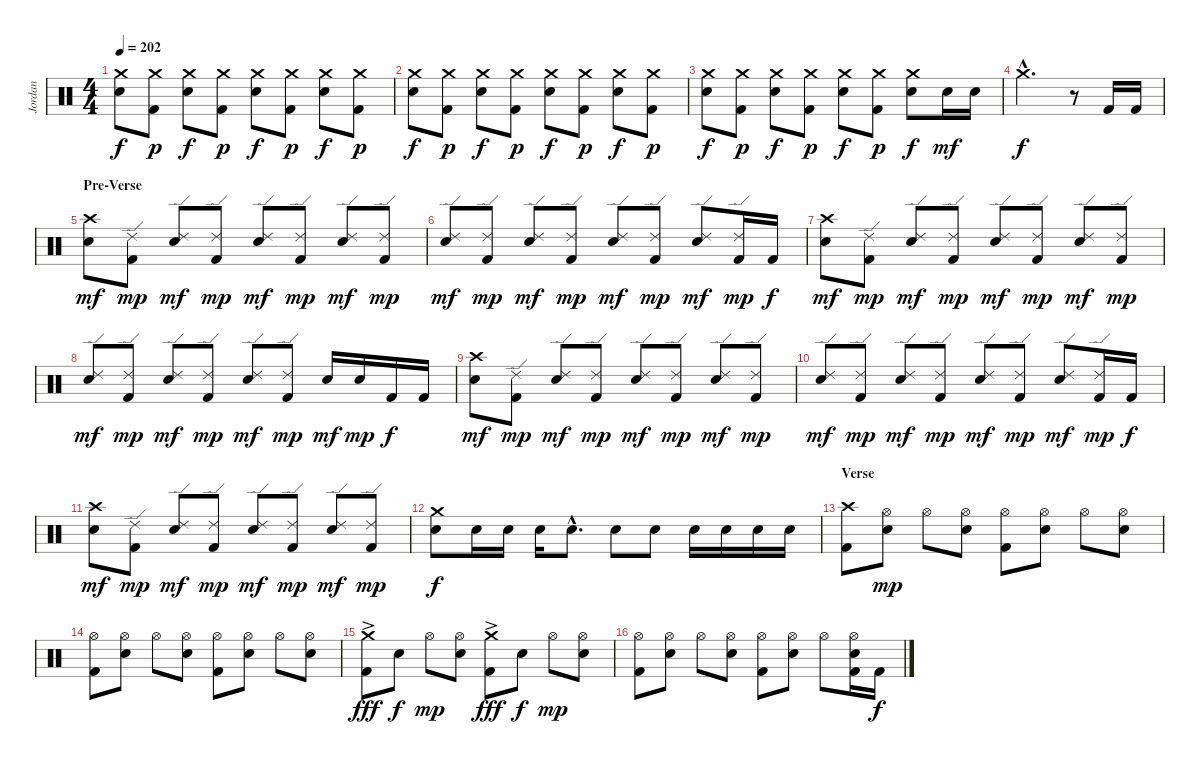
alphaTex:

\track ("Jordan" "Jordan") {instrument percussion}
\staff {score}
\articulation defaults
\ts (4 4)
\tempo 202
\clef neutral
\ks c
("Crash medium (hit)" "Electric Snare (hit)").8{dy f} ("Crash medium (hit)" "Kick (hit) 2").8{dy p} ("Crash medium (hit)" "Electric Snare (hit)").8{dy f} ("Crash medium (hit)" "Kick (hit) 2").8{dy p} ("Crash medium (hit)" "Electric Snare (hit)").8{dy f} ("Crash medium (hit)" "Kick (hit) 2").8{dy p} ("Crash medium (hit)" "Electric Snare (hit)").8{dy f} ("Crash medium (hit)" "Kick (hit) 2").8{dy p} |
("Crash medium (hit)" "Electric Snare (hit)").8{dy f} ("Crash medium (hit)" "Kick (hit) 2").8{dy p} ("Crash medium (hit)" "Electric Snare (hit)").8{dy f} ("Crash medium (hit)" "Kick (hit) 2").8{dy p} ("Crash medium (hit)" "Electric Snare (hit)").8{dy f} ("Crash medium (hit)" "Kick (hit) 2").8{dy p} ("Crash medium (hit)" "Electric Snare (hit)").8{dy f} ("Crash medium (hit)" "Kick (hit) 2").8{dy p} |
("Crash medium (hit)" "Electric Snare (hit)").8{dy f} ("Crash medium (hit)" "Kick (hit) 2").8{dy p} ("Crash medium (hit)" "Electric Snare (hit)").8{dy f} ("Crash medium (hit)" "Kick (hit) 2").8{dy p} ("Crash medium (hit)" "Electric Snare (hit)").8{dy f} ("Crash medium (hit)" "Kick (hit) 2").8{dy p} ("Crash medium (hit)" "Electric Snare (hit)").8{dy f} "Electric Snare (hit)".16{dy mf} "Electric Snare (hit)".16 |
"Crash medium (hit)"{hac}.2{d dy f} r.8 "Kick (hit) 2".16 "Kick (hit) 2".16 |
\section ("" "Pre-Verse")
("Crash high (hit)" "Electric Snare (hit)").8{dy mf} ("Ride (edge) 2" "Kick (hit) 2").8{dy mp} ("Ride (edge) 2" "Electric Snare (hit)").8{dy mf} ("Ride (edge) 2" "Kick (hit) 2").8{dy mp} ("Ride (edge) 2" "Electric Snare (hit)").8{dy mf} ("Ride (edge) 2" "Kick (hit) 2").8{dy mp} ("Ride (edge) 2" "Electric Snare (hit)").8{dy mf} ("Ride (edge) 2" "Kick (hit) 2").8{dy mp} |
("Ride (edge) 2" "Electric Snare (hit)").8{dy mf} ("Ride (edge) 2" "Kick (hit) 2").8{dy mp} ("Ride (edge) 2" "Electric Snare (hit)").8{dy mf} ("Ride (edge) 2" "Kick (hit) 2").8{dy mp} ("Ride (edge) 2" "Electric Snare (hit)").8{dy mf} ("Ride (edge) 2" "Kick (hit) 2").8{dy mp} ("Ride (edge) 2" "Electric Snare (hit)").8{dy mf} ("Ride (edge) 2" "Kick (hit) 2").16{dy mp} "Kick (hit) 2".16{dy f} |
("Crash high (hit)" "Electric Snare (hit)").8{dy mf} ("Ride (edge) 2" "Kick (hit) 2").8{dy mp} ("Ride (edge) 2" "Electric Snare (hit)").8{dy mf} ("Ride (edge) 2" "Kick (hit) 2").8{dy mp} ("Ride (edge) 2" "Electric Snare (hit)").8{dy mf} ("Ride (edge) 2" "Kick (hit) 2").8{dy mp} ("Ride (edge) 2" "Electric Snare (hit)").8{dy mf} ("Ride (edge) 2" "Kick (hit) 2").8{dy mp} |
("Ride (edge) 2" "Electric Snare (hit)").8{dy mf} ("Ride (edge) 2" "Kick (hit) 2").8{dy mp} ("Ride (edge) 2" "Electric Snare (hit)").8{dy mf} ("Ride (edge) 2" "Kick (hit) 2").8{dy mp} ("Ride (edge) 2" "Electric Snare (hit)").8{dy mf} ("Ride (edge) 2" "Kick (hit) 2").8{dy mp} "Electric Snare (hit)".16{dy mf} "Electric Snare (hit)".16{dy mp} "Kick (hit) 2".16{dy f} "Kick (hit) 2".16 |
("Crash high (hit)" "Electric Snare (hit)").8{dy mf} ("Ride (edge) 2" "Kick (hit) 2").8{dy mp} ("Ride (edge) 2" "Electric Snare (hit)").8{dy mf} ("Ride (edge) 2" "Kick (hit) 2").8{dy mp} ("Ride (edge) 2" "Electric Snare (hit)").8{dy mf} ("Ride (edge) 2" "Kick (hit) 2").8{dy mp} ("Ride (edge) 2" "Electric Snare (hit)").8{dy mf} ("Ride (edge) 2" "Kick (hit) 2").8{dy mp} |
("Ride (edge) 2" "Electric Snare (hit)").8{dy mf} ("Ride (edge) 2" "Kick (hit) 2").8{dy mp} ("Ride (edge) 2" "Electric Snare (hit)").8{dy mf} ("Ride (edge) 2" "Kick (hit) 2").8{dy mp} ("Ride (edge) 2" "Electric Snare (hit)").8{dy mf} ("Ride (edge) 2" "Kick (hit) 2").8{dy mp} ("Ride (edge) 2" "Electric Snare (hit)").8{dy mf} ("Ride (edge) 2" "Kick (hit) 2").16{dy mp} "Kick (hit) 2".16{dy f} |
("Crash high (hit)" "Electric Snare (hit)").8{dy mf} ("Ride (edge) 2" "Kick (hit) 2").8{dy mp} ("Ride (edge) 2" "Electric Snare (hit)").8{dy mf} ("Ride (edge) 2" "Kick (hit) 2").8{dy mp} ("Ride (edge) 2" "Electric Snare (hit)").8{dy mf} ("Ride (edge) 2" "Kick (hit) 2").8{dy mp} ("Ride (edge) 2" "Electric Snare (hit)").8{dy mf} ("Ride (edge) 2" "Kick (hit) 2").8{dy mp} |
("Crash medium (hit)" "Electric Snare (hit)").8{dy f} "Electric Snare (hit)".16 "Electric Snare (hit)".16 "Electric Snare (hit)".16 "Electric Snare (hit)"{hac}.8{d} "Electric Snare (hit)".8 "Electric Snare (hit)".8 "Electric Snare (hit)".16 "Electric Snare (hit)".16 "Electric Snare (hit)".16 "Electric Snare (hit)".16 |
\section ("" "Verse")
("Crash high (hit)" "Kick (hit) 2").8 ("Hi-Hat (open)" "Electric Snare (hit)").8{dy mp} "Hi-Hat (open)".8 ("Hi-Hat (open)" "Electric Snare (hit)").8 ("Hi-Hat (open)" "Kick (hit) 2").8 ("Hi-Hat (open)" "Electric Snare (hit)").8 "Hi-Hat (open)".8 ("Hi-Hat (open)" "Electric Snare (hit)").8 |
("Hi-Hat (open)" "Kick (hit) 2").8 ("Hi-Hat (open)" "Electric Snare (hit)").8 "Hi-Hat (open)".8 ("Hi-Hat (open)" "Electric Snare (hit)").8 ("Hi-Hat (open)" "Kick (hit) 2").8 ("Hi-Hat (open)" "Electric Snare (hit)").8 "Hi-Hat (open)".8 ("Hi-Hat (open)" "Electric Snare (hit)").8 |
("Crash medium (hit)" "Kick (hit) 2"{ac}).8{dy fff} "Electric Snare (hit)".8{dy f} "Hi-Hat (open)".8{dy mp} ("Hi-Hat (open)" "Electric Snare (hit)").8 ("Crash medium (hit)" "Kick (hit) 2"{ac}).8{dy fff} "Electric Snare (hit)".8{dy f} "Hi-Hat (open)".8{dy mp} ("Hi-Hat (open)" "Electric Snare (hit)").8 |
("Hi-Hat (open)" "Kick (hit) 2").8 ("Hi-Hat (open)" "Electric Snare (hit)").8 "Hi-Hat (open)".8 ("Hi-Hat (open)" "Electric Snare (hit)").8 ("Hi-Hat (open)" "Kick (hit) 2").8 ("Hi-Hat (open)" "Electric Snare (hit)").8 "Hi-Hat (open)".8 ("Hi-Hat (open)" "Electric Snare (hit)" "Kick (hit) 2").16 "Kick (hit) 2".16{dy f}
